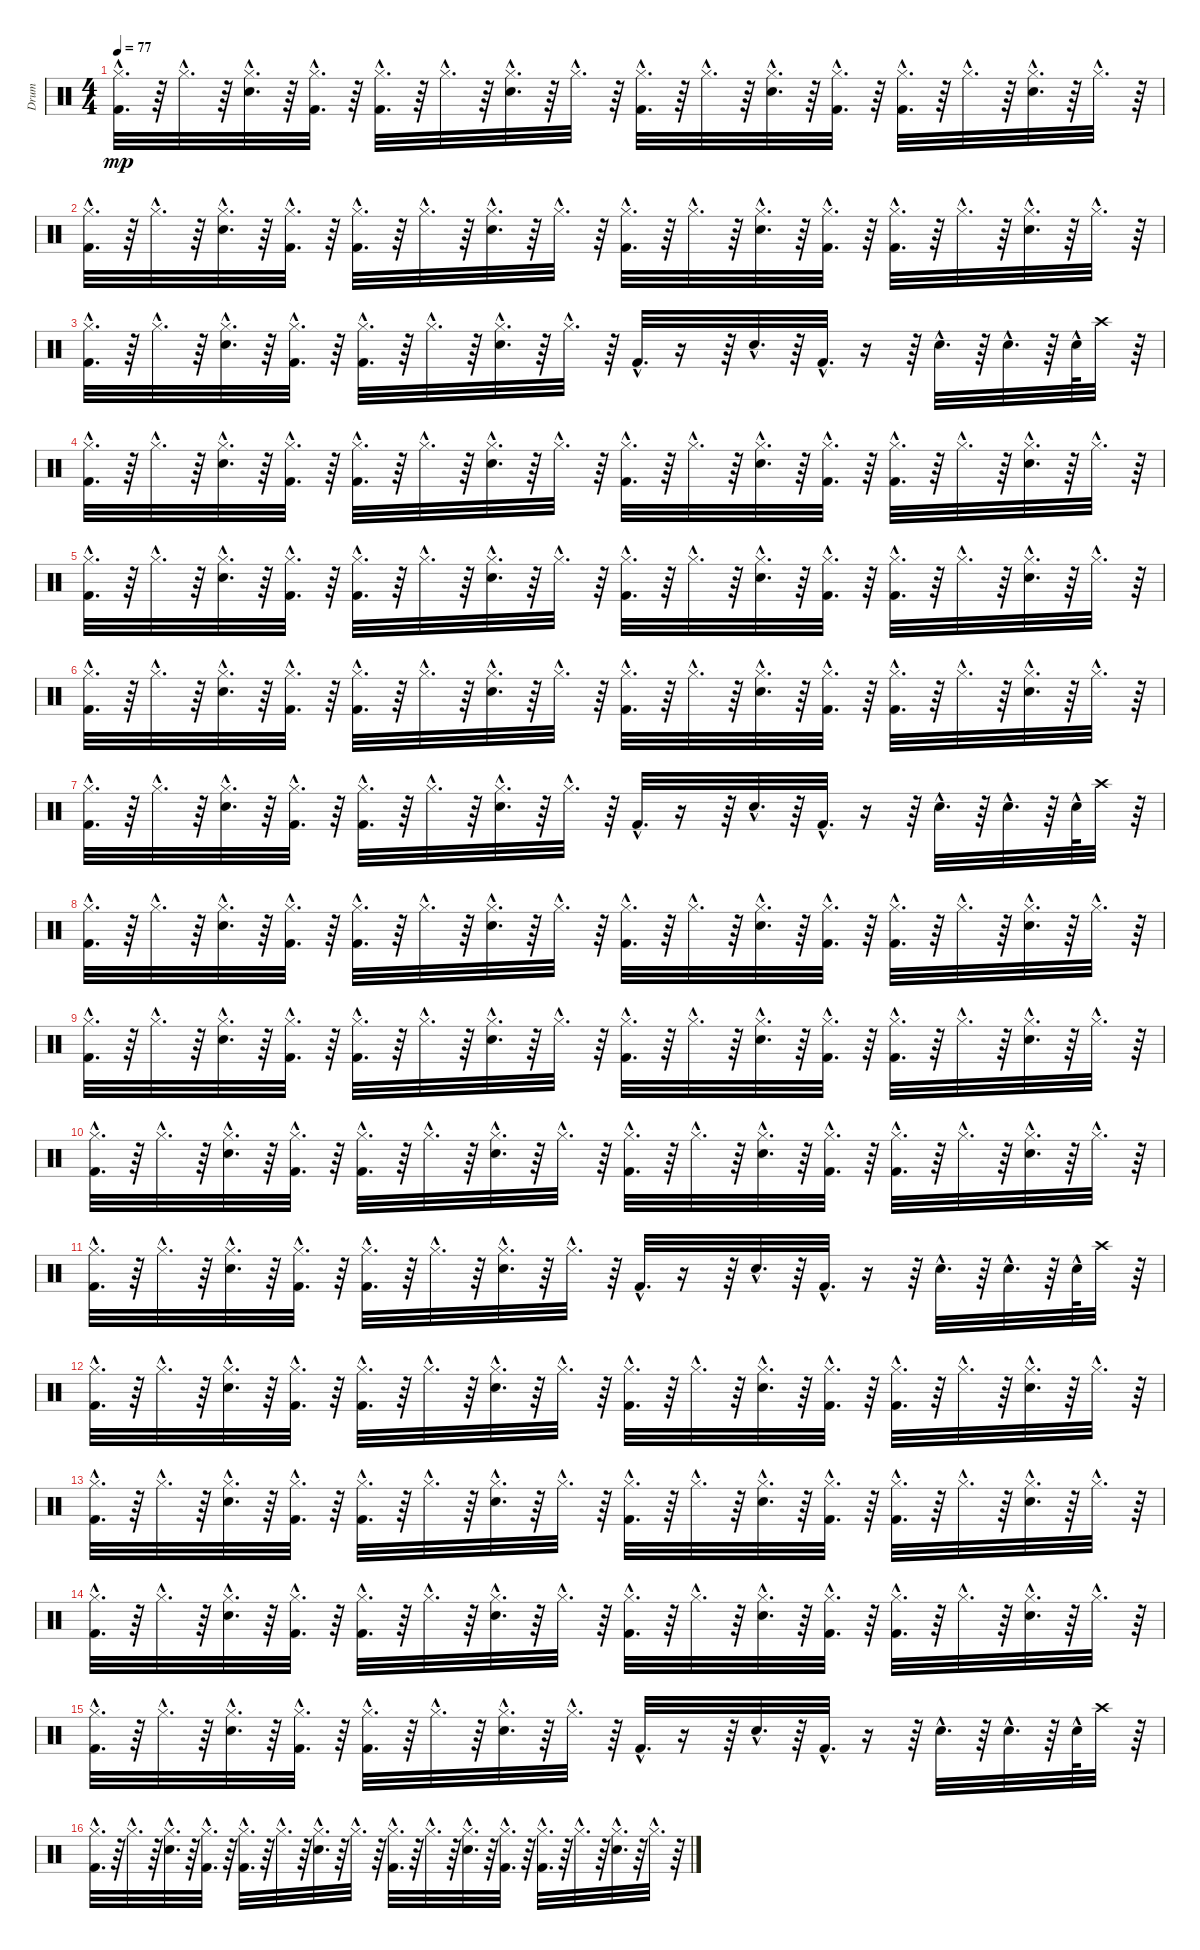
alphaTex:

\track ("Drum" "Drum") {instrument percussion}
\staff {score}
\articulation defaults
\ts (4 4)
\tempo 77
\clef neutral
\ks c
("Hi-Hat (closed)"{hac} "Kick (hit) 2"{hac}).32{d dy mp} r.64 "Hi-Hat (closed)"{hac}.32{d} r.64 ("Hi-Hat (closed)"{hac} "Snare (hit) 2"{hac}).32{d} r.64 ("Hi-Hat (closed)"{hac} "Kick (hit) 2"{hac}).32{d} r.64 ("Kick (hit) 2"{hac} "Hi-Hat (closed)"{hac}).32{d} r.64 "Hi-Hat (closed)"{hac}.32{d} r.64 ("Snare (hit) 2"{hac} "Hi-Hat (closed)"{hac}).32{d} r.64 "Hi-Hat (closed)"{hac}.32{d} r.64 ("Hi-Hat (closed)"{hac} "Kick (hit) 2"{hac}).32{d} r.64 "Hi-Hat (closed)"{hac}.32{d} r.64 ("Snare (hit) 2"{hac} "Hi-Hat (closed)"{hac}).32{d} r.64 ("Kick (hit) 2"{hac} "Hi-Hat (closed)"{hac}).32{d} r.64 ("Hi-Hat (closed)"{hac} "Kick (hit) 2"{hac}).32{d} r.64 "Hi-Hat (closed)"{hac}.32{d} r.64 ("Snare (hit) 2"{hac} "Hi-Hat (closed)"{hac}).32{d} r.64 "Hi-Hat (closed)"{hac}.32{d} r.64 |
("Hi-Hat (closed)"{hac} "Kick (hit) 2"{hac}).32{d} r.64 "Hi-Hat (closed)"{hac}.32{d} r.64 ("Snare (hit) 2"{hac} "Hi-Hat (closed)"{hac}).32{d} r.64 ("Kick (hit) 2"{hac} "Hi-Hat (closed)"{hac}).32{d} r.64 ("Hi-Hat (closed)"{hac} "Kick (hit) 2"{hac}).32{d} r.64 "Hi-Hat (closed)"{hac}.32{d} r.64 ("Hi-Hat (closed)"{hac} "Snare (hit) 2"{hac}).32{d} r.64 "Hi-Hat (closed)"{hac}.32{d} r.64 ("Kick (hit) 2"{hac} "Hi-Hat (closed)"{hac}).32{d} r.64 "Hi-Hat (closed)"{hac}.32{d} r.64 ("Snare (hit) 2"{hac} "Hi-Hat (closed)"{hac}).32{d} r.64 ("Hi-Hat (closed)"{hac} "Kick (hit) 2"{hac}).32{d} r.64 ("Hi-Hat (closed)"{hac} "Kick (hit) 2"{hac}).32{d} r.64 "Hi-Hat (closed)"{hac}.32{d} r.64 ("Hi-Hat (closed)"{hac} "Snare (hit) 2"{hac}).32{d} r.64 "Hi-Hat (closed)"{hac}.32{d} r.64 |
("Kick (hit) 2"{hac} "Hi-Hat (closed)"{hac}).32{d} r.64 "Hi-Hat (closed)"{hac}.32{d} r.64 ("Snare (hit) 2"{hac} "Hi-Hat (closed)"{hac}).32{d} r.64 ("Hi-Hat (closed)"{hac} "Kick (hit) 2"{hac}).32{d} r.64 ("Kick (hit) 2"{hac} "Hi-Hat (closed)"{hac}).32{d} r.64 "Hi-Hat (closed)"{hac}.32{d} r.64 ("Snare (hit) 2"{hac} "Hi-Hat (closed)"{hac}).32{d} r.64 "Hi-Hat (closed)"{hac}.32{d} r.64 "Kick (hit) 2"{hac}.32{d} r.16 r.64 "Snare (hit) 2"{hac}.32{d} r.64 "Kick (hit) 2"{hac}.32{d} r.16 r.64 "Snare (hit) 2"{hac}.32{d} r.64 "Snare (hit) 2"{hac}.32{d} r.64 "Snare (hit) 2"{hac}.64 "Crash high (hit)".32 r.64 |
("Kick (hit) 2"{hac} "Hi-Hat (closed)"{hac}).32{d} r.64 "Hi-Hat (closed)"{hac}.32{d} r.64 ("Hi-Hat (closed)"{hac} "Snare (hit) 2"{hac}).32{d} r.64 ("Hi-Hat (closed)"{hac} "Kick (hit) 2"{hac}).32{d} r.64 ("Kick (hit) 2"{hac} "Hi-Hat (closed)"{hac}).32{d} r.64 "Hi-Hat (closed)"{hac}.32{d} r.64 ("Snare (hit) 2"{hac} "Hi-Hat (closed)"{hac}).32{d} r.64 "Hi-Hat (closed)"{hac}.32{d} r.64 ("Kick (hit) 2"{hac} "Hi-Hat (closed)"{hac}).32{d} r.64 "Hi-Hat (closed)"{hac}.32{d} r.64 ("Hi-Hat (closed)"{hac} "Snare (hit) 2"{hac}).32{d} r.64 ("Kick (hit) 2"{hac} "Hi-Hat (closed)"{hac}).32{d} r.64 ("Kick (hit) 2"{hac} "Hi-Hat (closed)"{hac}).32{d} r.64 "Hi-Hat (closed)"{hac}.32{d} r.64 ("Snare (hit) 2"{hac} "Hi-Hat (closed)"{hac}).32{d} r.64 "Hi-Hat (closed)"{hac}.32{d} r.64 |
("Kick (hit) 2"{hac} "Hi-Hat (closed)"{hac}).32{d} r.64 "Hi-Hat (closed)"{hac}.32{d} r.64 ("Hi-Hat (closed)"{hac} "Snare (hit) 2"{hac}).32{d} r.64 ("Kick (hit) 2"{hac} "Hi-Hat (closed)"{hac}).32{d} r.64 ("Kick (hit) 2"{hac} "Hi-Hat (closed)"{hac}).32{d} r.64 "Hi-Hat (closed)"{hac}.32{d} r.64 ("Hi-Hat (closed)"{hac} "Snare (hit) 2"{hac}).32{d} r.64 "Hi-Hat (closed)"{hac}.32{d} r.64 ("Kick (hit) 2"{hac} "Hi-Hat (closed)"{hac}).32{d} r.64 "Hi-Hat (closed)"{hac}.32{d} r.64 ("Snare (hit) 2"{hac} "Hi-Hat (closed)"{hac}).32{d} r.64 ("Kick (hit) 2"{hac} "Hi-Hat (closed)"{hac}).32{d} r.64 ("Kick (hit) 2"{hac} "Hi-Hat (closed)"{hac}).32{d} r.64 "Hi-Hat (closed)"{hac}.32{d} r.64 ("Snare (hit) 2"{hac} "Hi-Hat (closed)"{hac}).32{d} r.64 "Hi-Hat (closed)"{hac}.32{d} r.64 |
("Kick (hit) 2"{hac} "Hi-Hat (closed)"{hac}).32{d} r.64 "Hi-Hat (closed)"{hac}.32{d} r.64 ("Hi-Hat (closed)"{hac} "Snare (hit) 2"{hac}).32{d} r.64 ("Hi-Hat (closed)"{hac} "Kick (hit) 2"{hac}).32{d} r.64 ("Hi-Hat (closed)"{hac} "Kick (hit) 2"{hac}).32{d} r.64 "Hi-Hat (closed)"{hac}.32{d} r.64 ("Snare (hit) 2"{hac} "Hi-Hat (closed)"{hac}).32{d} r.64 "Hi-Hat (closed)"{hac}.32{d} r.64 ("Hi-Hat (closed)"{hac} "Kick (hit) 2"{hac}).32{d} r.64 "Hi-Hat (closed)"{hac}.32{d} r.64 ("Snare (hit) 2"{hac} "Hi-Hat (closed)"{hac}).32{d} r.64 ("Hi-Hat (closed)"{hac} "Kick (hit) 2"{hac}).32{d} r.64 ("Hi-Hat (closed)"{hac} "Kick (hit) 2"{hac}).32{d} r.64 "Hi-Hat (closed)"{hac}.32{d} r.64 ("Hi-Hat (closed)"{hac} "Snare (hit) 2"{hac}).32{d} r.64 "Hi-Hat (closed)"{hac}.32{d} r.64 |
("Kick (hit) 2"{hac} "Hi-Hat (closed)"{hac}).32{d} r.64 "Hi-Hat (closed)"{hac}.32{d} r.64 ("Hi-Hat (closed)"{hac} "Snare (hit) 2"{hac}).32{d} r.64 ("Kick (hit) 2"{hac} "Hi-Hat (closed)"{hac}).32{d} r.64 ("Kick (hit) 2"{hac} "Hi-Hat (closed)"{hac}).32{d} r.64 "Hi-Hat (closed)"{hac}.32{d} r.64 ("Snare (hit) 2"{hac} "Hi-Hat (closed)"{hac}).32{d} r.64 "Hi-Hat (closed)"{hac}.32{d} r.64 "Kick (hit) 2"{hac}.32{d} r.16 r.64 "Snare (hit) 2"{hac}.32{d} r.64 "Kick (hit) 2"{hac}.32{d} r.16 r.64 "Snare (hit) 2"{hac}.32{d} r.64 "Snare (hit) 2"{hac}.32{d} r.64 "Snare (hit) 2"{hac}.64 "Crash high (hit)".32 r.64 |
("Kick (hit) 2"{hac} "Hi-Hat (closed)"{hac}).32{d} r.64 "Hi-Hat (closed)"{hac}.32{d} r.64 ("Snare (hit) 2"{hac} "Hi-Hat (closed)"{hac}).32{d} r.64 ("Kick (hit) 2"{hac} "Hi-Hat (closed)"{hac}).32{d} r.64 ("Hi-Hat (closed)"{hac} "Kick (hit) 2"{hac}).32{d} r.64 "Hi-Hat (closed)"{hac}.32{d} r.64 ("Snare (hit) 2"{hac} "Hi-Hat (closed)"{hac}).32{d} r.64 "Hi-Hat (closed)"{hac}.32{d} r.64 ("Hi-Hat (closed)"{hac} "Kick (hit) 2"{hac}).32{d} r.64 "Hi-Hat (closed)"{hac}.32{d} r.64 ("Snare (hit) 2"{hac} "Hi-Hat (closed)"{hac}).32{d} r.64 ("Hi-Hat (closed)"{hac} "Kick (hit) 2"{hac}).32{d} r.64 ("Hi-Hat (closed)"{hac} "Kick (hit) 2"{hac}).32{d} r.64 "Hi-Hat (closed)"{hac}.32{d} r.64 ("Snare (hit) 2"{hac} "Hi-Hat (closed)"{hac}).32{d} r.64 "Hi-Hat (closed)"{hac}.32{d} r.64 |
("Hi-Hat (closed)"{hac} "Kick (hit) 2"{hac}).32{d} r.64 "Hi-Hat (closed)"{hac}.32{d} r.64 ("Snare (hit) 2"{hac} "Hi-Hat (closed)"{hac}).32{d} r.64 ("Kick (hit) 2"{hac} "Hi-Hat (closed)"{hac}).32{d} r.64 ("Hi-Hat (closed)"{hac} "Kick (hit) 2"{hac}).32{d} r.64 "Hi-Hat (closed)"{hac}.32{d} r.64 ("Snare (hit) 2"{hac} "Hi-Hat (closed)"{hac}).32{d} r.64 "Hi-Hat (closed)"{hac}.32{d} r.64 ("Hi-Hat (closed)"{hac} "Kick (hit) 2"{hac}).32{d} r.64 "Hi-Hat (closed)"{hac}.32{d} r.64 ("Hi-Hat (closed)"{hac} "Snare (hit) 2"{hac}).32{d} r.64 ("Kick (hit) 2"{hac} "Hi-Hat (closed)"{hac}).32{d} r.64 ("Hi-Hat (closed)"{hac} "Kick (hit) 2"{hac}).32{d} r.64 "Hi-Hat (closed)"{hac}.32{d} r.64 ("Snare (hit) 2"{hac} "Hi-Hat (closed)"{hac}).32{d} r.64 "Hi-Hat (closed)"{hac}.32{d} r.64 |
("Kick (hit) 2"{hac} "Hi-Hat (closed)"{hac}).32{d} r.64 "Hi-Hat (closed)"{hac}.32{d} r.64 ("Snare (hit) 2"{hac} "Hi-Hat (closed)"{hac}).32{d} r.64 ("Hi-Hat (closed)"{hac} "Kick (hit) 2"{hac}).32{d} r.64 ("Kick (hit) 2"{hac} "Hi-Hat (closed)"{hac}).32{d} r.64 "Hi-Hat (closed)"{hac}.32{d} r.64 ("Snare (hit) 2"{hac} "Hi-Hat (closed)"{hac}).32{d} r.64 "Hi-Hat (closed)"{hac}.32{d} r.64 ("Kick (hit) 2"{hac} "Hi-Hat (closed)"{hac}).32{d} r.64 "Hi-Hat (closed)"{hac}.32{d} r.64 ("Hi-Hat (closed)"{hac} "Snare (hit) 2"{hac}).32{d} r.64 ("Kick (hit) 2"{hac} "Hi-Hat (closed)"{hac}).32{d} r.64 ("Hi-Hat (closed)"{hac} "Kick (hit) 2"{hac}).32{d} r.64 "Hi-Hat (closed)"{hac}.32{d} r.64 ("Snare (hit) 2"{hac} "Hi-Hat (closed)"{hac}).32{d} r.64 "Hi-Hat (closed)"{hac}.32{d} r.64 |
("Hi-Hat (closed)"{hac} "Kick (hit) 2"{hac}).32{d} r.64 "Hi-Hat (closed)"{hac}.32{d} r.64 ("Snare (hit) 2"{hac} "Hi-Hat (closed)"{hac}).32{d} r.64 ("Hi-Hat (closed)"{hac} "Kick (hit) 2"{hac}).32{d} r.64 ("Hi-Hat (closed)"{hac} "Kick (hit) 2"{hac}).32{d} r.64 "Hi-Hat (closed)"{hac}.32{d} r.64 ("Hi-Hat (closed)"{hac} "Snare (hit) 2"{hac}).32{d} r.64 "Hi-Hat (closed)"{hac}.32{d} r.64 "Kick (hit) 2"{hac}.32{d} r.16 r.64 "Snare (hit) 2"{hac}.32{d} r.64 "Kick (hit) 2"{hac}.32{d} r.16 r.64 "Snare (hit) 2"{hac}.32{d} r.64 "Snare (hit) 2"{hac}.32{d} r.64 "Snare (hit) 2"{hac}.64 "Crash high (hit)".32 r.64 |
("Kick (hit) 2"{hac} "Hi-Hat (closed)"{hac}).32{d} r.64 "Hi-Hat (closed)"{hac}.32{d} r.64 ("Hi-Hat (closed)"{hac} "Snare (hit) 2"{hac}).32{d} r.64 ("Kick (hit) 2"{hac} "Hi-Hat (closed)"{hac}).32{d} r.64 ("Hi-Hat (closed)"{hac} "Kick (hit) 2"{hac}).32{d} r.64 "Hi-Hat (closed)"{hac}.32{d} r.64 ("Hi-Hat (closed)"{hac} "Snare (hit) 2"{hac}).32{d} r.64 "Hi-Hat (closed)"{hac}.32{d} r.64 ("Kick (hit) 2"{hac} "Hi-Hat (closed)"{hac}).32{d} r.64 "Hi-Hat (closed)"{hac}.32{d} r.64 ("Hi-Hat (closed)"{hac} "Snare (hit) 2"{hac}).32{d} r.64 ("Kick (hit) 2"{hac} "Hi-Hat (closed)"{hac}).32{d} r.64 ("Hi-Hat (closed)"{hac} "Kick (hit) 2"{hac}).32{d} r.64 "Hi-Hat (closed)"{hac}.32{d} r.64 ("Snare (hit) 2"{hac} "Hi-Hat (closed)"{hac}).32{d} r.64 "Hi-Hat (closed)"{hac}.32{d} r.64 |
("Kick (hit) 2"{hac} "Hi-Hat (closed)"{hac}).32{d} r.64 "Hi-Hat (closed)"{hac}.32{d} r.64 ("Snare (hit) 2"{hac} "Hi-Hat (closed)"{hac}).32{d} r.64 ("Kick (hit) 2"{hac} "Hi-Hat (closed)"{hac}).32{d} r.64 ("Kick (hit) 2"{hac} "Hi-Hat (closed)"{hac}).32{d} r.64 "Hi-Hat (closed)"{hac}.32{d} r.64 ("Snare (hit) 2"{hac} "Hi-Hat (closed)"{hac}).32{d} r.64 "Hi-Hat (closed)"{hac}.32{d} r.64 ("Hi-Hat (closed)"{hac} "Kick (hit) 2"{hac}).32{d} r.64 "Hi-Hat (closed)"{hac}.32{d} r.64 ("Snare (hit) 2"{hac} "Hi-Hat (closed)"{hac}).32{d} r.64 ("Hi-Hat (closed)"{hac} "Kick (hit) 2"{hac}).32{d} r.64 ("Hi-Hat (closed)"{hac} "Kick (hit) 2"{hac}).32{d} r.64 "Hi-Hat (closed)"{hac}.32{d} r.64 ("Hi-Hat (closed)"{hac} "Snare (hit) 2"{hac}).32{d} r.64 "Hi-Hat (closed)"{hac}.32{d} r.64 |
("Kick (hit) 2"{hac} "Hi-Hat (closed)"{hac}).32{d} r.64 "Hi-Hat (closed)"{hac}.32{d} r.64 ("Hi-Hat (closed)"{hac} "Snare (hit) 2"{hac}).32{d} r.64 ("Hi-Hat (closed)"{hac} "Kick (hit) 2"{hac}).32{d} r.64 ("Kick (hit) 2"{hac} "Hi-Hat (closed)"{hac}).32{d} r.64 "Hi-Hat (closed)"{hac}.32{d} r.64 ("Snare (hit) 2"{hac} "Hi-Hat (closed)"{hac}).32{d} r.64 "Hi-Hat (closed)"{hac}.32{d} r.64 ("Kick (hit) 2"{hac} "Hi-Hat (closed)"{hac}).32{d} r.64 "Hi-Hat (closed)"{hac}.32{d} r.64 ("Snare (hit) 2"{hac} "Hi-Hat (closed)"{hac}).32{d} r.64 ("Kick (hit) 2"{hac} "Hi-Hat (closed)"{hac}).32{d} r.64 ("Hi-Hat (closed)"{hac} "Kick (hit) 2"{hac}).32{d} r.64 "Hi-Hat (closed)"{hac}.32{d} r.64 ("Snare (hit) 2"{hac} "Hi-Hat (closed)"{hac}).32{d} r.64 "Hi-Hat (closed)"{hac}.32{d} r.64 |
("Hi-Hat (closed)"{hac} "Kick (hit) 2"{hac}).32{d} r.64 "Hi-Hat (closed)"{hac}.32{d} r.64 ("Hi-Hat (closed)"{hac} "Snare (hit) 2"{hac}).32{d} r.64 ("Hi-Hat (closed)"{hac} "Kick (hit) 2"{hac}).32{d} r.64 ("Kick (hit) 2"{hac} "Hi-Hat (closed)"{hac}).32{d} r.64 "Hi-Hat (closed)"{hac}.32{d} r.64 ("Hi-Hat (closed)"{hac} "Snare (hit) 2"{hac}).32{d} r.64 "Hi-Hat (closed)"{hac}.32{d} r.64 "Kick (hit) 2"{hac}.32{d} r.16 r.64 "Snare (hit) 2"{hac}.32{d} r.64 "Kick (hit) 2"{hac}.32{d} r.16 r.64 "Snare (hit) 2"{hac}.32{d} r.64 "Snare (hit) 2"{hac}.32{d} r.64 "Snare (hit) 2"{hac}.64 "Crash high (hit)".32 r.64 |
("Hi-Hat (closed)"{hac} "Kick (hit) 2"{hac}).32{d} r.64 "Hi-Hat (closed)"{hac}.32{d} r.64 ("Hi-Hat (closed)"{hac} "Snare (hit) 2"{hac}).32{d} r.64 ("Kick (hit) 2"{hac} "Hi-Hat (closed)"{hac}).32{d} r.64 ("Kick (hit) 2"{hac} "Hi-Hat (closed)"{hac}).32{d} r.64 "Hi-Hat (closed)"{hac}.32{d} r.64 ("Hi-Hat (closed)"{hac} "Snare (hit) 2"{hac}).32{d} r.64 "Hi-Hat (closed)"{hac}.32{d} r.64 ("Kick (hit) 2"{hac} "Hi-Hat (closed)"{hac}).32{d} r.64 "Hi-Hat (closed)"{hac}.32{d} r.64 ("Hi-Hat (closed)"{hac} "Snare (hit) 2"{hac}).32{d} r.64 ("Kick (hit) 2"{hac} "Hi-Hat (closed)"{hac}).32{d} r.64 ("Kick (hit) 2"{hac} "Hi-Hat (closed)"{hac}).32{d} r.64 "Hi-Hat (closed)"{hac}.32{d} r.64 ("Hi-Hat (closed)"{hac} "Snare (hit) 2"{hac}).32{d} r.64 "Hi-Hat (closed)"{hac}.32{d} r.64
